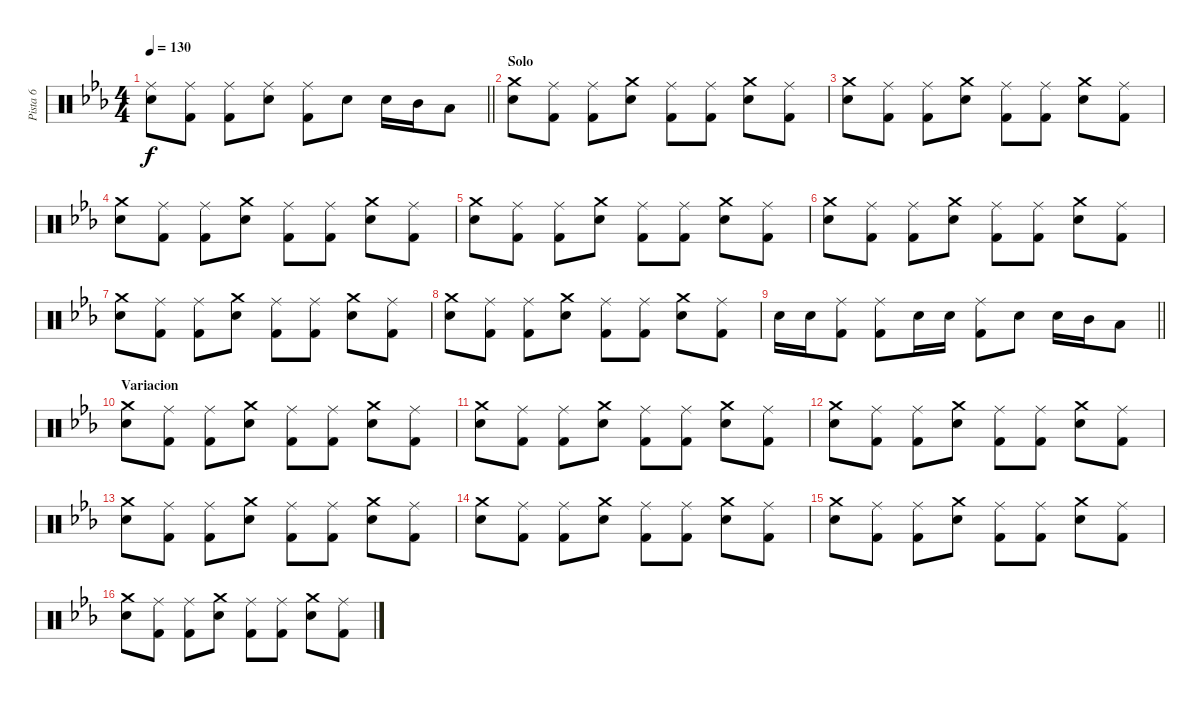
\track ("Pista 6" "Pista 6") {instrument percussion}
\staff {score}
\articulation defaults
\ts (4 4)
\tempo 130
\clef neutral
\barLineRight lightlight
\ks eb
("Ride (middle)" "Snare (hit) 2").8{dy f} ("Ride (middle)" "Kick (hit) 2").8 ("Ride (middle)" "Kick (hit) 2").8 ("Ride (middle)" "Snare (hit) 2").8 ("Ride (middle)" "Kick (hit) 2").8 "Snare (hit) 2".8 "Snare (hit) 2".16 "Mid Tom (hit)".16 "Low Tom (hit)".8 |
\section ("" "Solo")
("Crash medium (hit)" "Snare (hit) 2").8 ("Ride (middle)" "Kick (hit) 2").8 ("Ride (middle)" "Kick (hit) 2").8 ("Crash medium (hit)" "Snare (hit) 2").8 ("Ride (middle)" "Kick (hit) 2").8 ("Ride (middle)" "Kick (hit) 2").8 ("Crash medium (hit)" "Snare (hit) 2").8 ("Ride (middle)" "Kick (hit) 2").8 |
("Crash medium (hit)" "Snare (hit) 2").8 ("Ride (middle)" "Kick (hit) 2").8 ("Ride (middle)" "Kick (hit) 2").8 ("Crash medium (hit)" "Snare (hit) 2").8 ("Ride (middle)" "Kick (hit) 2").8 ("Ride (middle)" "Kick (hit) 2").8 ("Crash medium (hit)" "Snare (hit) 2").8 ("Ride (middle)" "Kick (hit) 2").8 |
("Crash medium (hit)" "Snare (hit) 2").8 ("Ride (middle)" "Kick (hit) 2").8 ("Ride (middle)" "Kick (hit) 2").8 ("Crash medium (hit)" "Snare (hit) 2").8 ("Ride (middle)" "Kick (hit) 2").8 ("Ride (middle)" "Kick (hit) 2").8 ("Crash medium (hit)" "Snare (hit) 2").8 ("Ride (middle)" "Kick (hit) 2").8 |
("Crash medium (hit)" "Snare (hit) 2").8 ("Ride (middle)" "Kick (hit) 2").8 ("Ride (middle)" "Kick (hit) 2").8 ("Crash medium (hit)" "Snare (hit) 2").8 ("Ride (middle)" "Kick (hit) 2").8 ("Ride (middle)" "Kick (hit) 2").8 ("Crash medium (hit)" "Snare (hit) 2").8 ("Ride (middle)" "Kick (hit) 2").8 |
("Crash medium (hit)" "Snare (hit) 2").8 ("Ride (middle)" "Kick (hit) 2").8 ("Ride (middle)" "Kick (hit) 2").8 ("Crash medium (hit)" "Snare (hit) 2").8 ("Ride (middle)" "Kick (hit) 2").8 ("Ride (middle)" "Kick (hit) 2").8 ("Crash medium (hit)" "Snare (hit) 2").8 ("Ride (middle)" "Kick (hit) 2").8 |
("Crash medium (hit)" "Snare (hit) 2").8 ("Ride (middle)" "Kick (hit) 2").8 ("Ride (middle)" "Kick (hit) 2").8 ("Crash medium (hit)" "Snare (hit) 2").8 ("Ride (middle)" "Kick (hit) 2").8 ("Ride (middle)" "Kick (hit) 2").8 ("Crash medium (hit)" "Snare (hit) 2").8 ("Ride (middle)" "Kick (hit) 2").8 |
("Crash medium (hit)" "Snare (hit) 2").8 ("Ride (middle)" "Kick (hit) 2").8 ("Ride (middle)" "Kick (hit) 2").8 ("Crash medium (hit)" "Snare (hit) 2").8 ("Ride (middle)" "Kick (hit) 2").8 ("Ride (middle)" "Kick (hit) 2").8 ("Crash medium (hit)" "Snare (hit) 2").8 ("Ride (middle)" "Kick (hit) 2").8 |
\barLineRight lightlight "Snare (hit) 2".16 "Snare (hit) 2".16
("Ride (middle)" "Kick (hit) 2").8 ("Ride (middle)" "Kick (hit) 2").8 "Snare (hit) 2".16 "Snare (hit) 2".16 ("Ride (middle)" "Kick (hit) 2").8 "Snare (hit) 2".8 "Snare (hit) 2".16 "Mid Tom (hit)".16 "Low Tom (hit)".8 |
\section ("" "Variacion")
("Crash medium (hit)" "Snare (hit) 2").8 ("Ride (middle)" "Kick (hit) 2").8 ("Ride (middle)" "Kick (hit) 2").8 ("Crash medium (hit)" "Snare (hit) 2").8 ("Ride (middle)" "Kick (hit) 2").8 ("Ride (middle)" "Kick (hit) 2").8 ("Crash medium (hit)" "Snare (hit) 2").8 ("Ride (middle)" "Kick (hit) 2").8 |
("Crash medium (hit)" "Snare (hit) 2").8 ("Ride (middle)" "Kick (hit) 2").8 ("Ride (middle)" "Kick (hit) 2").8 ("Crash medium (hit)" "Snare (hit) 2").8 ("Ride (middle)" "Kick (hit) 2").8 ("Ride (middle)" "Kick (hit) 2").8 ("Crash medium (hit)" "Snare (hit) 2").8 ("Ride (middle)" "Kick (hit) 2").8 |
("Crash medium (hit)" "Snare (hit) 2").8 ("Ride (middle)" "Kick (hit) 2").8 ("Ride (middle)" "Kick (hit) 2").8 ("Crash medium (hit)" "Snare (hit) 2").8 ("Ride (middle)" "Kick (hit) 2").8 ("Ride (middle)" "Kick (hit) 2").8 ("Crash medium (hit)" "Snare (hit) 2").8 ("Ride (middle)" "Kick (hit) 2").8 |
("Crash medium (hit)" "Snare (hit) 2").8 ("Ride (middle)" "Kick (hit) 2").8 ("Ride (middle)" "Kick (hit) 2").8 ("Crash medium (hit)" "Snare (hit) 2").8 ("Ride (middle)" "Kick (hit) 2").8 ("Ride (middle)" "Kick (hit) 2").8 ("Crash medium (hit)" "Snare (hit) 2").8 ("Ride (middle)" "Kick (hit) 2").8 |
("Crash medium (hit)" "Snare (hit) 2").8 ("Ride (middle)" "Kick (hit) 2").8 ("Ride (middle)" "Kick (hit) 2").8 ("Crash medium (hit)" "Snare (hit) 2").8 ("Ride (middle)" "Kick (hit) 2").8 ("Ride (middle)" "Kick (hit) 2").8 ("Crash medium (hit)" "Snare (hit) 2").8 ("Ride (middle)" "Kick (hit) 2").8 |
("Crash medium (hit)" "Snare (hit) 2").8 ("Ride (middle)" "Kick (hit) 2").8 ("Ride (middle)" "Kick (hit) 2").8 ("Crash medium (hit)" "Snare (hit) 2").8 ("Ride (middle)" "Kick (hit) 2").8 ("Ride (middle)" "Kick (hit) 2").8 ("Crash medium (hit)" "Snare (hit) 2").8 ("Ride (middle)" "Kick (hit) 2").8 |
("Crash medium (hit)" "Snare (hit) 2").8 ("Ride (middle)" "Kick (hit) 2").8 ("Ride (middle)" "Kick (hit) 2").8 ("Crash medium (hit)" "Snare (hit) 2").8 ("Ride (middle)" "Kick (hit) 2").8 ("Ride (middle)" "Kick (hit) 2").8 ("Crash medium (hit)" "Snare (hit) 2").8 ("Ride (middle)" "Kick (hit) 2").8
